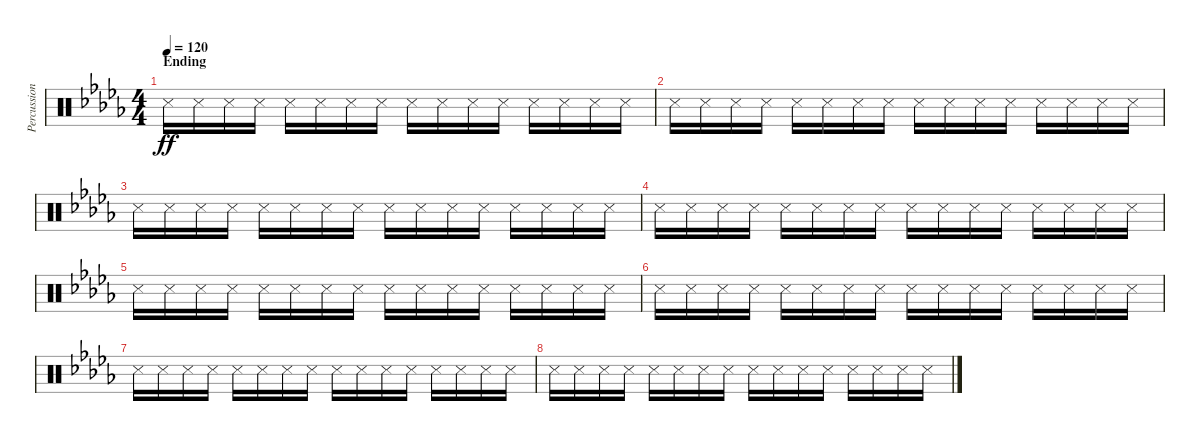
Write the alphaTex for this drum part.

\track ("Percussion A (Tainaka Ritsu)" "Percussion") {instrument percussion}
\staff {score}
\articulation defaults
\ts (4 4)
\section ("" "Ending")
\tempo 120
\clef neutral
\ks db "Snare (side stick) 3".16{dy ff} "Snare (side stick) 3".16 "Snare (side stick) 3".16 "Snare (side stick) 3".16 "Snare (side stick) 3".16 "Snare (side stick) 3".16 "Snare (side stick) 3".16 "Snare (side stick) 3".16 "Snare (side stick) 3".16 "Snare (side stick) 3".16 "Snare (side stick) 3".16 "Snare (side stick) 3".16 "Snare (side stick) 3".16 "Snare (side stick) 3".16 "Snare (side stick) 3".16 "Snare (side stick) 3".16
|
"Snare (side stick) 3".16 "Snare (side stick) 3".16 "Snare (side stick) 3".16 "Snare (side stick) 3".16 "Snare (side stick) 3".16 "Snare (side stick) 3".16 "Snare (side stick) 3".16 "Snare (side stick) 3".16 "Snare (side stick) 3".16 "Snare (side stick) 3".16 "Snare (side stick) 3".16 "Snare (side stick) 3".16 "Snare (side stick) 3".16 "Snare (side stick) 3".16 "Snare (side stick) 3".16 "Snare (side stick) 3".16 |
"Snare (side stick) 3".16 "Snare (side stick) 3".16 "Snare (side stick) 3".16 "Snare (side stick) 3".16 "Snare (side stick) 3".16 "Snare (side stick) 3".16 "Snare (side stick) 3".16 "Snare (side stick) 3".16 "Snare (side stick) 3".16 "Snare (side stick) 3".16 "Snare (side stick) 3".16 "Snare (side stick) 3".16 "Snare (side stick) 3".16 "Snare (side stick) 3".16 "Snare (side stick) 3".16 "Snare (side stick) 3".16 |
"Snare (side stick) 3".16 "Snare (side stick) 3".16 "Snare (side stick) 3".16 "Snare (side stick) 3".16 "Snare (side stick) 3".16 "Snare (side stick) 3".16 "Snare (side stick) 3".16 "Snare (side stick) 3".16 "Snare (side stick) 3".16 "Snare (side stick) 3".16 "Snare (side stick) 3".16 "Snare (side stick) 3".16 "Snare (side stick) 3".16 "Snare (side stick) 3".16 "Snare (side stick) 3".16 "Snare (side stick) 3".16 |
"Snare (side stick) 3".16 "Snare (side stick) 3".16 "Snare (side stick) 3".16 "Snare (side stick) 3".16 "Snare (side stick) 3".16 "Snare (side stick) 3".16 "Snare (side stick) 3".16 "Snare (side stick) 3".16 "Snare (side stick) 3".16 "Snare (side stick) 3".16 "Snare (side stick) 3".16 "Snare (side stick) 3".16 "Snare (side stick) 3".16 "Snare (side stick) 3".16 "Snare (side stick) 3".16 "Snare (side stick) 3".16 |
"Snare (side stick) 3".16 "Snare (side stick) 3".16 "Snare (side stick) 3".16 "Snare (side stick) 3".16 "Snare (side stick) 3".16 "Snare (side stick) 3".16 "Snare (side stick) 3".16 "Snare (side stick) 3".16 "Snare (side stick) 3".16 "Snare (side stick) 3".16 "Snare (side stick) 3".16 "Snare (side stick) 3".16 "Snare (side stick) 3".16 "Snare (side stick) 3".16 "Snare (side stick) 3".16 "Snare (side stick) 3".16 |
"Snare (side stick) 3".16 "Snare (side stick) 3".16 "Snare (side stick) 3".16 "Snare (side stick) 3".16 "Snare (side stick) 3".16 "Snare (side stick) 3".16 "Snare (side stick) 3".16 "Snare (side stick) 3".16 "Snare (side stick) 3".16 "Snare (side stick) 3".16 "Snare (side stick) 3".16 "Snare (side stick) 3".16 "Snare (side stick) 3".16 "Snare (side stick) 3".16 "Snare (side stick) 3".16 "Snare (side stick) 3".16 |
"Snare (side stick) 3".16 "Snare (side stick) 3".16 "Snare (side stick) 3".16 "Snare (side stick) 3".16 "Snare (side stick) 3".16 "Snare (side stick) 3".16 "Snare (side stick) 3".16 "Snare (side stick) 3".16 "Snare (side stick) 3".16 "Snare (side stick) 3".16 "Snare (side stick) 3".16 "Snare (side stick) 3".16 "Snare (side stick) 3".16 "Snare (side stick) 3".16 "Snare (side stick) 3".16 "Snare (side stick) 3".16
